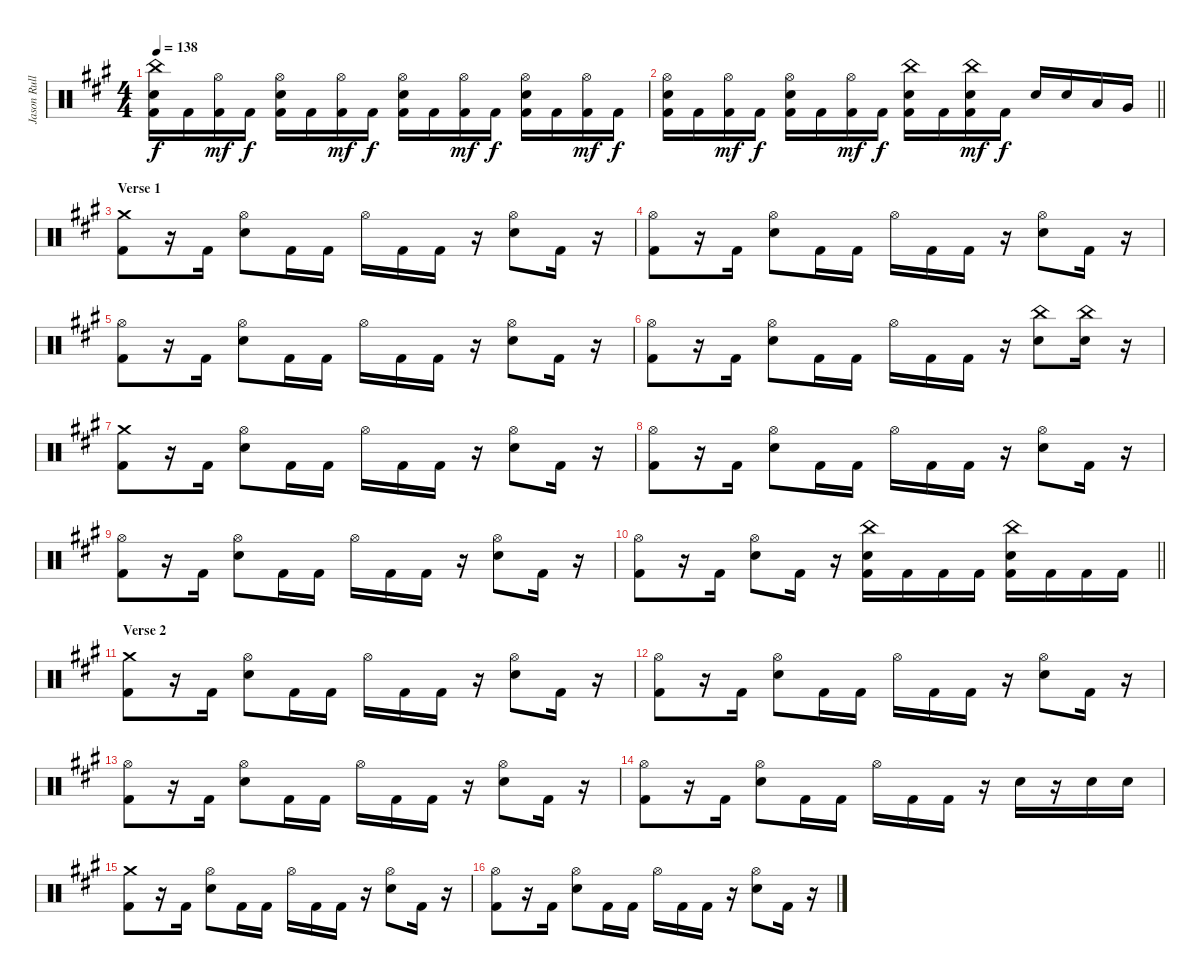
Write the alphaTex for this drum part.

\track ("Jason Rullo (drums)" "Jason Rull") {instrument percussion}
\staff {score}
\articulation defaults
\ts (4 4)
\tempo 138
\clef neutral
\ks f#minor
("China (hit)" "Electric Snare (hit)" "Kick (hit) 2").16{dy f} "Kick (hit) 2".16 ("Hi-Hat (open)" "Kick (hit) 2").16{dy mf} "Kick (hit) 2".16{dy f} ("Hi-Hat (open)" "Electric Snare (hit)" "Kick (hit) 2").16 "Kick (hit) 2".16 ("Hi-Hat (open)" "Kick (hit) 2").16{dy mf} "Kick (hit) 2".16{dy f} ("Hi-Hat (open)" "Electric Snare (hit)" "Kick (hit) 2").16 "Kick (hit) 2".16 ("Hi-Hat (open)" "Kick (hit) 2").16{dy mf} "Kick (hit) 2".16{dy f} ("Hi-Hat (open)" "Electric Snare (hit)" "Kick (hit) 2").16 "Kick (hit) 2".16 ("Hi-Hat (open)" "Kick (hit) 2").16{dy mf} "Kick (hit) 2".16{dy f} |
\barLineRight lightlight
("Hi-Hat (open)" "Electric Snare (hit)" "Kick (hit) 2").16 "Kick (hit) 2".16 ("Hi-Hat (open)" "Kick (hit) 2").16{dy mf} "Kick (hit) 2".16{dy f} ("Hi-Hat (open)" "Electric Snare (hit)" "Kick (hit) 2").16 "Kick (hit) 2".16 ("Hi-Hat (open)" "Kick (hit) 2").16{dy mf} "Kick (hit) 2".16{dy f} ("China (hit)" "Electric Snare (hit)" "Kick (hit) 2").16 "Kick (hit) 2".16 ("Electric Snare (hit)" "China (hit)" "Kick (hit) 2").16{dy mf} "Kick (hit) 2".16{dy f} "Electric Snare (hit)".16 "Electric Snare (hit)".16 "Low Tom (hit)".16 "Very Low Tom (hit)".16 |
\section ("" "Verse 1")
("Crash medium (hit)" "Kick (hit) 2").8 r.16 "Kick (hit) 2".16 ("Hi-Hat (open)" "Electric Snare (hit)").8 "Kick (hit) 2".16 "Kick (hit) 2".16 "Hi-Hat (open)".16 "Kick (hit) 2".16 "Kick (hit) 2".16 r.16 ("Hi-Hat (open)" "Electric Snare (hit)").8 "Kick (hit) 2".16 r.16 |
("Hi-Hat (open)" "Kick (hit) 2").8 r.16 "Kick (hit) 2".16 ("Hi-Hat (open)" "Electric Snare (hit)").8 "Kick (hit) 2".16 "Kick (hit) 2".16 "Hi-Hat (open)".16 "Kick (hit) 2".16 "Kick (hit) 2".16 r.16 ("Hi-Hat (open)" "Electric Snare (hit)").8 "Kick (hit) 2".16 r.16 |
("Hi-Hat (open)" "Kick (hit) 2").8 r.16 "Kick (hit) 2".16 ("Hi-Hat (open)" "Electric Snare (hit)").8 "Kick (hit) 2".16 "Kick (hit) 2".16 "Hi-Hat (open)".16 "Kick (hit) 2".16 "Kick (hit) 2".16 r.16 ("Hi-Hat (open)" "Electric Snare (hit)").8 "Kick (hit) 2".16 r.16 |
("Hi-Hat (open)" "Kick (hit) 2").8 r.16 "Kick (hit) 2".16 ("Hi-Hat (open)" "Electric Snare (hit)").8 "Kick (hit) 2".16 "Kick (hit) 2".16 "Hi-Hat (open)".16 "Kick (hit) 2".16 "Kick (hit) 2".16 r.16 ("China (hit)" "Electric Snare (hit)").8 ("China (hit)" "Electric Snare (hit)").16 r.16 |
("Crash medium (hit)" "Kick (hit) 2").8 r.16 "Kick (hit) 2".16 ("Hi-Hat (open)" "Electric Snare (hit)").8 "Kick (hit) 2".16 "Kick (hit) 2".16 "Hi-Hat (open)".16 "Kick (hit) 2".16 "Kick (hit) 2".16 r.16 ("Hi-Hat (open)" "Electric Snare (hit)").8 "Kick (hit) 2".16 r.16 |
("Hi-Hat (open)" "Kick (hit) 2").8 r.16 "Kick (hit) 2".16 ("Hi-Hat (open)" "Electric Snare (hit)").8 "Kick (hit) 2".16 "Kick (hit) 2".16 "Hi-Hat (open)".16 "Kick (hit) 2".16 "Kick (hit) 2".16 r.16 ("Hi-Hat (open)" "Electric Snare (hit)").8 "Kick (hit) 2".16 r.16 |
("Hi-Hat (open)" "Kick (hit) 2").8 r.16 "Kick (hit) 2".16 ("Hi-Hat (open)" "Electric Snare (hit)").8 "Kick (hit) 2".16 "Kick (hit) 2".16 "Hi-Hat (open)".16 "Kick (hit) 2".16 "Kick (hit) 2".16 r.16 ("Hi-Hat (open)" "Electric Snare (hit)").8 "Kick (hit) 2".16 r.16 |
\barLineRight lightlight
("Hi-Hat (open)" "Kick (hit) 2").8 r.16 "Kick (hit) 2".16 ("Hi-Hat (open)" "Electric Snare (hit)").8 "Kick (hit) 2".16 r.16 ("China (hit)" "Electric Snare (hit)" "Kick (hit) 2").16 "Kick (hit) 2".16 "Kick (hit) 2".16 "Kick (hit) 2".16 ("Kick (hit) 2" "China (hit)" "Electric Snare (hit)").16 "Kick (hit) 2".16 "Kick (hit) 2".16 "Kick (hit) 2".16 |
\section ("" "Verse 2")
("Crash medium (hit)" "Kick (hit) 2").8 r.16 "Kick (hit) 2".16 ("Hi-Hat (open)" "Electric Snare (hit)").8 "Kick (hit) 2".16 "Kick (hit) 2".16 "Hi-Hat (open)".16 "Kick (hit) 2".16 "Kick (hit) 2".16 r.16 ("Hi-Hat (open)" "Electric Snare (hit)").8 "Kick (hit) 2".16 r.16 |
("Hi-Hat (open)" "Kick (hit) 2").8 r.16 "Kick (hit) 2".16 ("Hi-Hat (open)" "Electric Snare (hit)").8 "Kick (hit) 2".16 "Kick (hit) 2".16 "Hi-Hat (open)".16 "Kick (hit) 2".16 "Kick (hit) 2".16 r.16 ("Hi-Hat (open)" "Electric Snare (hit)").8 "Kick (hit) 2".16 r.16 |
("Hi-Hat (open)" "Kick (hit) 2").8 r.16 "Kick (hit) 2".16 ("Hi-Hat (open)" "Electric Snare (hit)").8 "Kick (hit) 2".16 "Kick (hit) 2".16 "Hi-Hat (open)".16 "Kick (hit) 2".16 "Kick (hit) 2".16 r.16 ("Hi-Hat (open)" "Electric Snare (hit)").8 "Kick (hit) 2".16 r.16 |
("Hi-Hat (open)" "Kick (hit) 2").8 r.16 "Kick (hit) 2".16 ("Hi-Hat (open)" "Electric Snare (hit)").8 "Kick (hit) 2".16 "Kick (hit) 2".16 "Hi-Hat (open)".16 "Kick (hit) 2".16 "Kick (hit) 2".16 r.16 "Electric Snare (hit)".16 r.16 "Electric Snare (hit)".16 "Electric Snare (hit)".16 |
("Crash medium (hit)" "Kick (hit) 2").8 r.16 "Kick (hit) 2".16 ("Hi-Hat (open)" "Electric Snare (hit)").8 "Kick (hit) 2".16 "Kick (hit) 2".16 "Hi-Hat (open)".16 "Kick (hit) 2".16 "Kick (hit) 2".16 r.16 ("Hi-Hat (open)" "Electric Snare (hit)").8 "Kick (hit) 2".16 r.16 |
("Hi-Hat (open)" "Kick (hit) 2").8 r.16 "Kick (hit) 2".16 ("Hi-Hat (open)" "Electric Snare (hit)").8 "Kick (hit) 2".16 "Kick (hit) 2".16 "Hi-Hat (open)".16 "Kick (hit) 2".16 "Kick (hit) 2".16 r.16 ("Hi-Hat (open)" "Electric Snare (hit)").8 "Kick (hit) 2".16 r.16
